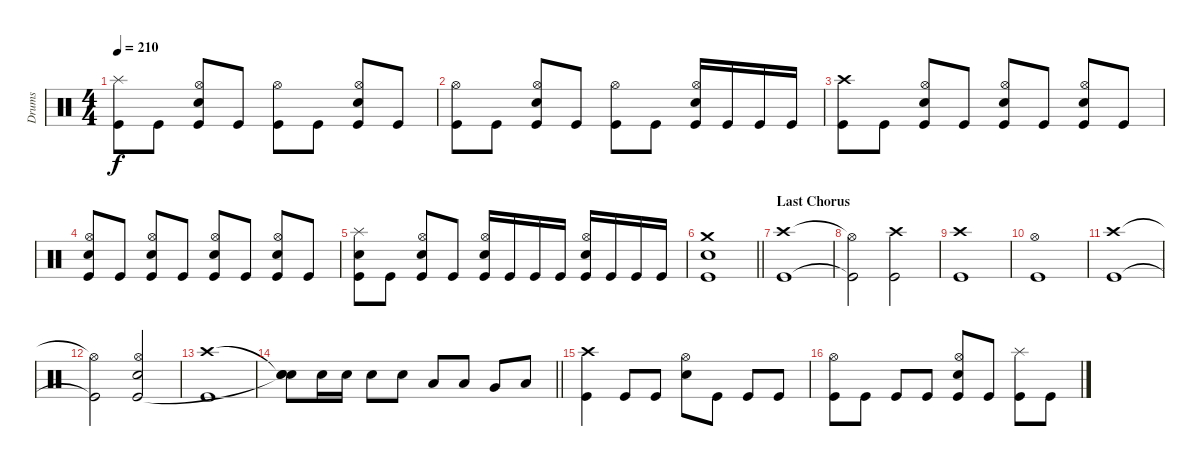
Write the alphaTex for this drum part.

\track ("Drums" "Drums") {instrument percussion}
\staff {score}
\articulation defaults
\ts (4 4)
\tempo 210
\clef neutral
\ks c
("Splash (hit)" "Kick (hit)").8{dy f} "Kick (hit)".8 ("Hi-Hat (open)" "Electric Snare (hit)" "Kick (hit)").8 "Kick (hit)".8 ("Hi-Hat (open)" "Kick (hit)").8 "Kick (hit)".8 ("Hi-Hat (open)" "Electric Snare (hit)" "Kick (hit)").8 "Kick (hit)".8 |
("Hi-Hat (open)" "Kick (hit)").8 "Kick (hit)".8 ("Hi-Hat (open)" "Electric Snare (hit)" "Kick (hit)").8 "Kick (hit)".8 ("Hi-Hat (open)" "Kick (hit)").8 "Kick (hit)".8 ("Hi-Hat (open)" "Electric Snare (hit)" "Kick (hit)").16 "Kick (hit)".16 "Kick (hit)".16 "Kick (hit)".16 |
("Crash high (hit)" "Kick (hit)").8 "Kick (hit)".8 ("Hi-Hat (open)" "Electric Snare (hit)" "Kick (hit)").8 "Kick (hit)".8 ("Hi-Hat (open)" "Electric Snare (hit)" "Kick (hit)").8 "Kick (hit)".8 ("Hi-Hat (open)" "Electric Snare (hit)" "Kick (hit)").8 "Kick (hit)".8 |
("Hi-Hat (open)" "Electric Snare (hit)" "Kick (hit)").8 "Kick (hit)".8 ("Hi-Hat (open)" "Electric Snare (hit)" "Kick (hit)").8 "Kick (hit)".8 ("Hi-Hat (open)" "Electric Snare (hit)" "Kick (hit)").8 "Kick (hit)".8 ("Hi-Hat (open)" "Electric Snare (hit)" "Kick (hit)").8 "Kick (hit)".8 |
("Splash (hit)" "Electric Snare (hit)" "Kick (hit)").8 "Kick (hit)".8 ("Hi-Hat (open)" "Electric Snare (hit)" "Kick (hit)").8 "Kick (hit)".8 ("Hi-Hat (open)" "Electric Snare (hit)" "Kick (hit)").16 "Kick (hit)".16 "Kick (hit)".16 "Kick (hit)".16 ("Hi-Hat (open)" "Electric Snare (hit)" "Kick (hit)").16 "Kick (hit)".16 "Kick (hit)".16 "Kick (hit)".16 |
\barLineRight lightlight
("Crash medium (hit)" "Electric Snare (hit)" "Kick (hit)").1 |
\section ("" "Last Chorus")
("Crash high (hit)" "Kick (hit)").1 |
("Hi-Hat (open)"{t} "Kick (hit)"{t}).2 ("Crash high (hit)" "Kick (hit)").2 |
("Crash high (hit)" "Kick (hit)").1 |
("Hi-Hat (open)" "Kick (hit)").1 |
("Crash high (hit)" "Kick (hit)").1 |
("Hi-Hat (open)"{t} "Kick (hit)"{t}).2 ("Hi-Hat (open)" "Snare (hit) 2" "Kick (hit)").2 |
("Crash high (hit)" "Kick (hit)").1 |
\barLineRight lightlight
("Snare (hit)"{t} "Snare (hit) 2" "Snare (hit)"{t}).8 "Snare (hit) 2".16 "Snare (hit) 2".16 "Snare (hit) 2".8 "Snare (hit) 2".8 "Low Tom (hit)".8 "Low Tom (hit)".8 "Very Low Tom (hit)".8 "Low Floor Tom (hit)".8 |
("Crash high (hit)" "Kick (hit)").4 "Kick (hit)".8 "Kick (hit)".8 ("Hi-Hat (open)" "Snare (hit) 2").8 "Kick (hit)".8 "Kick (hit)".8 "Kick (hit)".8 |
("Hi-Hat (open)" "Kick (hit)").8 "Kick (hit)".8 "Kick (hit)".8 "Kick (hit)".8 ("Hi-Hat (open)" "Snare (hit) 2" "Kick (hit)").8 "Kick (hit)".8 ("Splash (hit)" "Kick (hit)").8 "Kick (hit)".8
